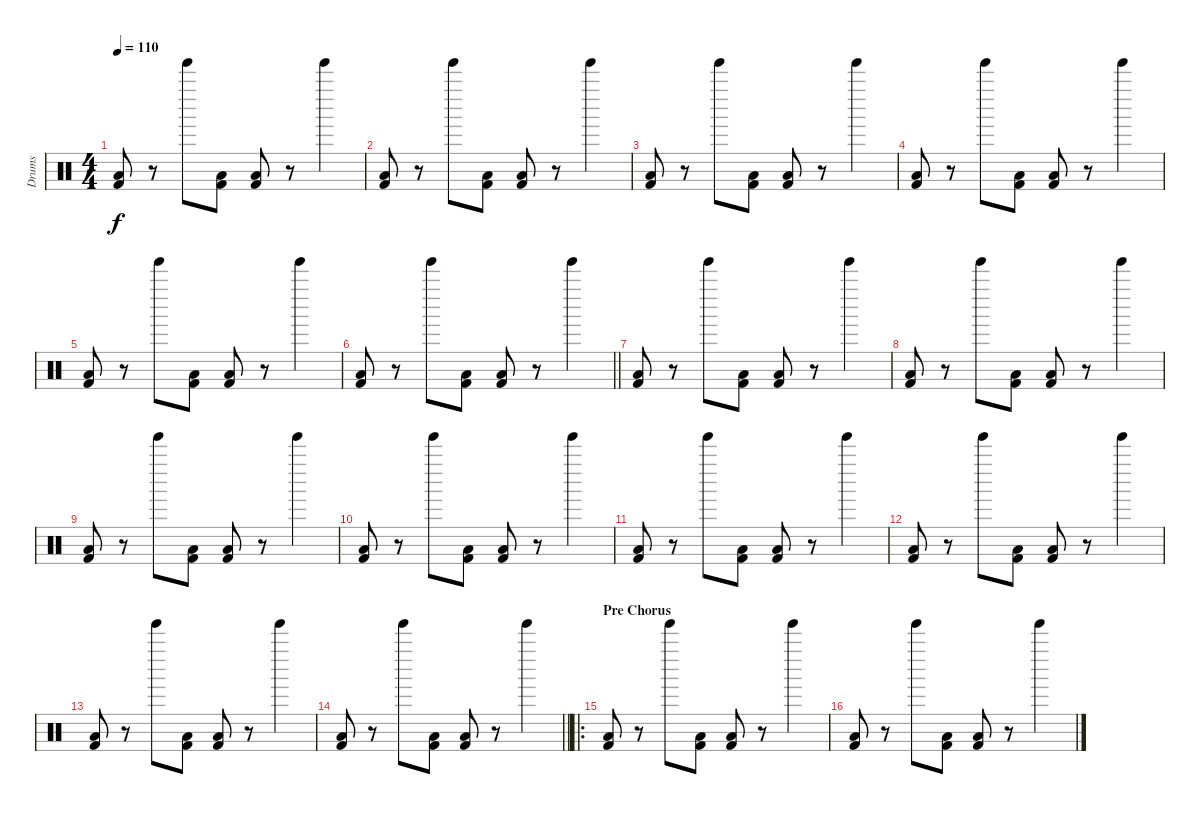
\track ("Drums" "Drums") {instrument percussion}
\staff {score}
\articulation defaults
\ts (4 4)
\tempo 110
\clef neutral
\ks c
("Low Floor Tom (hit)" "Kick (hit) 2").8{dy f} r.8 "Tinkle Bell (hit)".8 ("Low Floor Tom (hit)" "Kick (hit) 2").8 ("Low Floor Tom (hit)" "Kick (hit) 2").8 r.8 "Tinkle Bell (hit)".4 |
("Low Floor Tom (hit)" "Kick (hit) 2").8 r.8 "Tinkle Bell (hit)".8 ("Low Floor Tom (hit)" "Kick (hit) 2").8 ("Low Floor Tom (hit)" "Kick (hit) 2").8 r.8 "Tinkle Bell (hit)".4 |
("Low Floor Tom (hit)" "Kick (hit) 2").8 r.8 "Tinkle Bell (hit)".8 ("Low Floor Tom (hit)" "Kick (hit) 2").8 ("Low Floor Tom (hit)" "Kick (hit) 2").8 r.8 "Tinkle Bell (hit)".4 |
("Low Floor Tom (hit)" "Kick (hit) 2").8 r.8 "Tinkle Bell (hit)".8 ("Low Floor Tom (hit)" "Kick (hit) 2").8 ("Low Floor Tom (hit)" "Kick (hit) 2").8 r.8 "Tinkle Bell (hit)".4 |
("Low Floor Tom (hit)" "Kick (hit) 2").8 r.8 "Tinkle Bell (hit)".8 ("Low Floor Tom (hit)" "Kick (hit) 2").8 ("Low Floor Tom (hit)" "Kick (hit) 2").8 r.8 "Tinkle Bell (hit)".4 |
\barLineRight lightlight
("Low Floor Tom (hit)" "Kick (hit) 2").8 r.8 "Tinkle Bell (hit)".8 ("Low Floor Tom (hit)" "Kick (hit) 2").8 ("Low Floor Tom (hit)" "Kick (hit) 2").8 r.8 "Tinkle Bell (hit)".4 |
("Low Floor Tom (hit)" "Kick (hit) 2").8 r.8 "Tinkle Bell (hit)".8 ("Low Floor Tom (hit)" "Kick (hit) 2").8 ("Low Floor Tom (hit)" "Kick (hit) 2").8 r.8 "Tinkle Bell (hit)".4 |
("Low Floor Tom (hit)" "Kick (hit) 2").8 r.8 "Tinkle Bell (hit)".8 ("Low Floor Tom (hit)" "Kick (hit) 2").8 ("Low Floor Tom (hit)" "Kick (hit) 2").8 r.8 "Tinkle Bell (hit)".4 |
("Low Floor Tom (hit)" "Kick (hit) 2").8 r.8 "Tinkle Bell (hit)".8 ("Low Floor Tom (hit)" "Kick (hit) 2").8 ("Low Floor Tom (hit)" "Kick (hit) 2").8 r.8 "Tinkle Bell (hit)".4 |
("Low Floor Tom (hit)" "Kick (hit) 2").8 r.8 "Tinkle Bell (hit)".8 ("Low Floor Tom (hit)" "Kick (hit) 2").8 ("Low Floor Tom (hit)" "Kick (hit) 2").8 r.8 "Tinkle Bell (hit)".4 |
("Low Floor Tom (hit)" "Kick (hit) 2").8 r.8 "Tinkle Bell (hit)".8 ("Low Floor Tom (hit)" "Kick (hit) 2").8 ("Low Floor Tom (hit)" "Kick (hit) 2").8 r.8 "Tinkle Bell (hit)".4 |
("Low Floor Tom (hit)" "Kick (hit) 2").8 r.8 "Tinkle Bell (hit)".8 ("Low Floor Tom (hit)" "Kick (hit) 2").8 ("Low Floor Tom (hit)" "Kick (hit) 2").8 r.8 "Tinkle Bell (hit)".4 |
("Low Floor Tom (hit)" "Kick (hit) 2").8 r.8 "Tinkle Bell (hit)".8 ("Low Floor Tom (hit)" "Kick (hit) 2").8 ("Low Floor Tom (hit)" "Kick (hit) 2").8 r.8 "Tinkle Bell (hit)".4 |
\barLineRight lightlight
("Low Floor Tom (hit)" "Kick (hit) 2").8 r.8 "Tinkle Bell (hit)".8 ("Low Floor Tom (hit)" "Kick (hit) 2").8 ("Low Floor Tom (hit)" "Kick (hit) 2").8 r.8 "Tinkle Bell (hit)".4 |
\ro
\section ("" "Pre Chorus")
("Low Floor Tom (hit)" "Kick (hit) 2").8 r.8 "Tinkle Bell (hit)".8 ("Low Floor Tom (hit)" "Kick (hit) 2").8 ("Low Floor Tom (hit)" "Kick (hit) 2").8 r.8 "Tinkle Bell (hit)".4 |
("Low Floor Tom (hit)" "Kick (hit) 2").8 r.8 "Tinkle Bell (hit)".8 ("Low Floor Tom (hit)" "Kick (hit) 2").8 ("Low Floor Tom (hit)" "Kick (hit) 2").8 r.8 "Tinkle Bell (hit)".4
